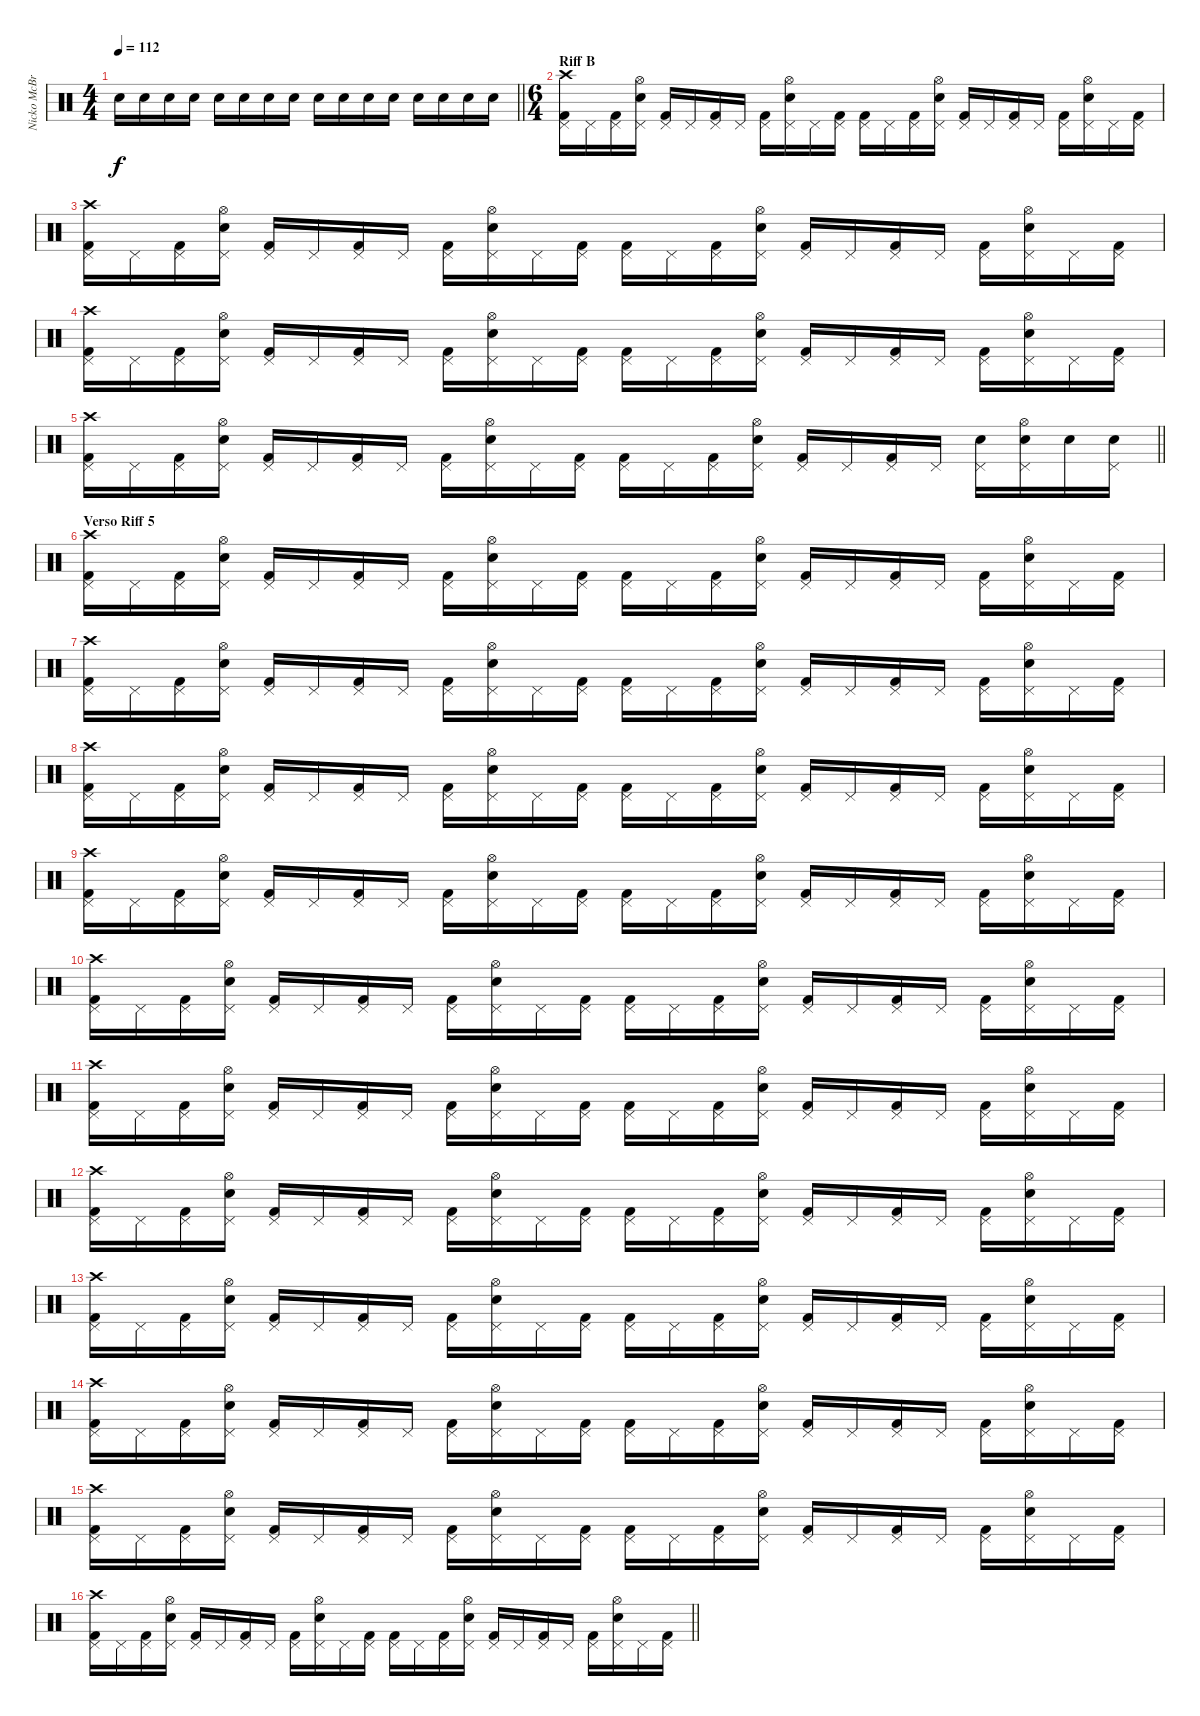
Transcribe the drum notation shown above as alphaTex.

\track ("Nicko McBrain" "Nicko McBr") {instrument percussion}
\staff {score}
\articulation defaults
\ts (4 4)
\tempo 112
\clef neutral
\barLineRight lightlight
\ks c "Snare (hit) 2".16{dy f volume 13} "Snare (hit) 2".16 "Snare (hit) 2".16 "Snare (hit) 2".16 "Snare (hit) 2".16 "Snare (hit) 2".16 "Snare (hit) 2".16 "Snare (hit) 2".16 "Snare (hit) 2".16 "Snare (hit) 2".16 "Snare (hit) 2".16 "Snare (hit) 2".16 "Snare (hit) 2".16 "Snare (hit) 2".16 "Snare (hit) 2".16 "Snare (hit) 2".16
|
\ts (6 4)
\section ("" "Riff B")
("Kick (hit) 2" "Pedal Hi-Hat (hit)" "Crash high (hit)").16 "Pedal Hi-Hat (hit)".16 ("Kick (hit) 2" "Pedal Hi-Hat (hit)").16 ("Snare (hit) 2" "Pedal Hi-Hat (hit)" "Hi-Hat (open)").16 ("Kick (hit) 2" "Pedal Hi-Hat (hit)").16 "Pedal Hi-Hat (hit)".16 ("Kick (hit) 2" "Pedal Hi-Hat (hit)").16 "Pedal Hi-Hat (hit)".16 ("Kick (hit) 2" "Pedal Hi-Hat (hit)").16 ("Snare (hit) 2" "Pedal Hi-Hat (hit)" "Hi-Hat (open)").16 "Pedal Hi-Hat (hit)".16 ("Kick (hit) 2" "Pedal Hi-Hat (hit)").16 ("Kick (hit) 2" "Pedal Hi-Hat (hit)").16 "Pedal Hi-Hat (hit)".16 ("Kick (hit) 2" "Pedal Hi-Hat (hit)").16 ("Snare (hit) 2" "Pedal Hi-Hat (hit)" "Hi-Hat (open)").16 ("Kick (hit) 2" "Pedal Hi-Hat (hit)").16 "Pedal Hi-Hat (hit)".16 ("Kick (hit) 2" "Pedal Hi-Hat (hit)").16 "Pedal Hi-Hat (hit)".16 ("Kick (hit) 2" "Pedal Hi-Hat (hit)").16 ("Snare (hit) 2" "Pedal Hi-Hat (hit)" "Hi-Hat (open)").16 "Pedal Hi-Hat (hit)".16 ("Kick (hit) 2" "Pedal Hi-Hat (hit)").16 |
("Kick (hit) 2" "Pedal Hi-Hat (hit)" "Crash high (hit)").16 "Pedal Hi-Hat (hit)".16 ("Kick (hit) 2" "Pedal Hi-Hat (hit)").16 ("Snare (hit) 2" "Pedal Hi-Hat (hit)" "Hi-Hat (open)").16 ("Kick (hit) 2" "Pedal Hi-Hat (hit)").16 "Pedal Hi-Hat (hit)".16 ("Kick (hit) 2" "Pedal Hi-Hat (hit)").16 "Pedal Hi-Hat (hit)".16 ("Kick (hit) 2" "Pedal Hi-Hat (hit)").16 ("Snare (hit) 2" "Pedal Hi-Hat (hit)" "Hi-Hat (open)").16 "Pedal Hi-Hat (hit)".16 ("Kick (hit) 2" "Pedal Hi-Hat (hit)").16 ("Kick (hit) 2" "Pedal Hi-Hat (hit)").16 "Pedal Hi-Hat (hit)".16 ("Kick (hit) 2" "Pedal Hi-Hat (hit)").16 ("Snare (hit) 2" "Pedal Hi-Hat (hit)" "Hi-Hat (open)").16 ("Kick (hit) 2" "Pedal Hi-Hat (hit)").16 "Pedal Hi-Hat (hit)".16 ("Kick (hit) 2" "Pedal Hi-Hat (hit)").16 "Pedal Hi-Hat (hit)".16 ("Kick (hit) 2" "Pedal Hi-Hat (hit)").16 ("Snare (hit) 2" "Pedal Hi-Hat (hit)" "Hi-Hat (open)").16 "Pedal Hi-Hat (hit)".16 ("Kick (hit) 2" "Pedal Hi-Hat (hit)").16 |
("Kick (hit) 2" "Pedal Hi-Hat (hit)" "Crash high (hit)").16 "Pedal Hi-Hat (hit)".16 ("Kick (hit) 2" "Pedal Hi-Hat (hit)").16 ("Snare (hit) 2" "Pedal Hi-Hat (hit)" "Hi-Hat (open)").16 ("Kick (hit) 2" "Pedal Hi-Hat (hit)").16 "Pedal Hi-Hat (hit)".16 ("Kick (hit) 2" "Pedal Hi-Hat (hit)").16 "Pedal Hi-Hat (hit)".16 ("Kick (hit) 2" "Pedal Hi-Hat (hit)").16 ("Snare (hit) 2" "Pedal Hi-Hat (hit)" "Hi-Hat (open)").16 "Pedal Hi-Hat (hit)".16 ("Kick (hit) 2" "Pedal Hi-Hat (hit)").16 ("Kick (hit) 2" "Pedal Hi-Hat (hit)").16 "Pedal Hi-Hat (hit)".16 ("Kick (hit) 2" "Pedal Hi-Hat (hit)").16 ("Snare (hit) 2" "Pedal Hi-Hat (hit)" "Hi-Hat (open)").16 ("Kick (hit) 2" "Pedal Hi-Hat (hit)").16 "Pedal Hi-Hat (hit)".16 ("Kick (hit) 2" "Pedal Hi-Hat (hit)").16 "Pedal Hi-Hat (hit)".16 ("Kick (hit) 2" "Pedal Hi-Hat (hit)").16 ("Snare (hit) 2" "Pedal Hi-Hat (hit)" "Hi-Hat (open)").16 "Pedal Hi-Hat (hit)".16 ("Kick (hit) 2" "Pedal Hi-Hat (hit)").16 |
\barLineRight lightlight
("Kick (hit) 2" "Pedal Hi-Hat (hit)" "Crash high (hit)").16 "Pedal Hi-Hat (hit)".16 ("Kick (hit) 2" "Pedal Hi-Hat (hit)").16 ("Snare (hit) 2" "Pedal Hi-Hat (hit)" "Hi-Hat (open)").16 ("Kick (hit) 2" "Pedal Hi-Hat (hit)").16 "Pedal Hi-Hat (hit)".16 ("Kick (hit) 2" "Pedal Hi-Hat (hit)").16 "Pedal Hi-Hat (hit)".16 ("Kick (hit) 2" "Pedal Hi-Hat (hit)").16 ("Snare (hit) 2" "Pedal Hi-Hat (hit)" "Hi-Hat (open)").16 "Pedal Hi-Hat (hit)".16 ("Kick (hit) 2" "Pedal Hi-Hat (hit)").16 ("Kick (hit) 2" "Pedal Hi-Hat (hit)").16 "Pedal Hi-Hat (hit)".16 ("Kick (hit) 2" "Pedal Hi-Hat (hit)").16 ("Snare (hit) 2" "Pedal Hi-Hat (hit)" "Hi-Hat (open)").16 ("Kick (hit) 2" "Pedal Hi-Hat (hit)").16 "Pedal Hi-Hat (hit)".16 ("Kick (hit) 2" "Pedal Hi-Hat (hit)").16 "Pedal Hi-Hat (hit)".16 ("Snare (hit) 2" "Pedal Hi-Hat (hit)").16 ("Snare (hit) 2" "Pedal Hi-Hat (hit)" "Hi-Hat (open)").16 "Snare (hit) 2".16 ("Snare (hit) 2" "Pedal Hi-Hat (hit)").16 |
\section ("" "Verso Riff 5")
("Kick (hit) 2" "Pedal Hi-Hat (hit)" "Crash high (hit)").16 "Pedal Hi-Hat (hit)".16 ("Kick (hit) 2" "Pedal Hi-Hat (hit)").16 ("Snare (hit) 2" "Pedal Hi-Hat (hit)" "Hi-Hat (open)").16 ("Kick (hit) 2" "Pedal Hi-Hat (hit)").16 "Pedal Hi-Hat (hit)".16 ("Kick (hit) 2" "Pedal Hi-Hat (hit)").16 "Pedal Hi-Hat (hit)".16 ("Kick (hit) 2" "Pedal Hi-Hat (hit)").16 ("Snare (hit) 2" "Pedal Hi-Hat (hit)" "Hi-Hat (open)").16 "Pedal Hi-Hat (hit)".16 ("Kick (hit) 2" "Pedal Hi-Hat (hit)").16 ("Kick (hit) 2" "Pedal Hi-Hat (hit)").16 "Pedal Hi-Hat (hit)".16 ("Kick (hit) 2" "Pedal Hi-Hat (hit)").16 ("Snare (hit) 2" "Pedal Hi-Hat (hit)" "Hi-Hat (open)").16 ("Kick (hit) 2" "Pedal Hi-Hat (hit)").16 "Pedal Hi-Hat (hit)".16 ("Kick (hit) 2" "Pedal Hi-Hat (hit)").16 "Pedal Hi-Hat (hit)".16 ("Kick (hit) 2" "Pedal Hi-Hat (hit)").16 ("Snare (hit) 2" "Pedal Hi-Hat (hit)" "Hi-Hat (open)").16 "Pedal Hi-Hat (hit)".16 ("Kick (hit) 2" "Pedal Hi-Hat (hit)").16 |
("Kick (hit) 2" "Pedal Hi-Hat (hit)" "Crash high (hit)").16 "Pedal Hi-Hat (hit)".16 ("Kick (hit) 2" "Pedal Hi-Hat (hit)").16 ("Snare (hit) 2" "Pedal Hi-Hat (hit)" "Hi-Hat (open)").16 ("Kick (hit) 2" "Pedal Hi-Hat (hit)").16 "Pedal Hi-Hat (hit)".16 ("Kick (hit) 2" "Pedal Hi-Hat (hit)").16 "Pedal Hi-Hat (hit)".16 ("Kick (hit) 2" "Pedal Hi-Hat (hit)").16 ("Snare (hit) 2" "Pedal Hi-Hat (hit)" "Hi-Hat (open)").16 "Pedal Hi-Hat (hit)".16 ("Kick (hit) 2" "Pedal Hi-Hat (hit)").16 ("Kick (hit) 2" "Pedal Hi-Hat (hit)").16 "Pedal Hi-Hat (hit)".16 ("Kick (hit) 2" "Pedal Hi-Hat (hit)").16 ("Snare (hit) 2" "Pedal Hi-Hat (hit)" "Hi-Hat (open)").16 ("Kick (hit) 2" "Pedal Hi-Hat (hit)").16 "Pedal Hi-Hat (hit)".16 ("Kick (hit) 2" "Pedal Hi-Hat (hit)").16 "Pedal Hi-Hat (hit)".16 ("Kick (hit) 2" "Pedal Hi-Hat (hit)").16 ("Snare (hit) 2" "Pedal Hi-Hat (hit)" "Hi-Hat (open)").16 "Pedal Hi-Hat (hit)".16 ("Kick (hit) 2" "Pedal Hi-Hat (hit)").16 |
("Kick (hit) 2" "Pedal Hi-Hat (hit)" "Crash high (hit)").16 "Pedal Hi-Hat (hit)".16 ("Kick (hit) 2" "Pedal Hi-Hat (hit)").16 ("Snare (hit) 2" "Pedal Hi-Hat (hit)" "Hi-Hat (open)").16 ("Kick (hit) 2" "Pedal Hi-Hat (hit)").16 "Pedal Hi-Hat (hit)".16 ("Kick (hit) 2" "Pedal Hi-Hat (hit)").16 "Pedal Hi-Hat (hit)".16 ("Kick (hit) 2" "Pedal Hi-Hat (hit)").16 ("Snare (hit) 2" "Pedal Hi-Hat (hit)" "Hi-Hat (open)").16 "Pedal Hi-Hat (hit)".16 ("Kick (hit) 2" "Pedal Hi-Hat (hit)").16 ("Kick (hit) 2" "Pedal Hi-Hat (hit)").16 "Pedal Hi-Hat (hit)".16 ("Kick (hit) 2" "Pedal Hi-Hat (hit)").16 ("Snare (hit) 2" "Pedal Hi-Hat (hit)" "Hi-Hat (open)").16 ("Kick (hit) 2" "Pedal Hi-Hat (hit)").16 "Pedal Hi-Hat (hit)".16 ("Kick (hit) 2" "Pedal Hi-Hat (hit)").16 "Pedal Hi-Hat (hit)".16 ("Kick (hit) 2" "Pedal Hi-Hat (hit)").16 ("Snare (hit) 2" "Pedal Hi-Hat (hit)" "Hi-Hat (open)").16 "Pedal Hi-Hat (hit)".16 ("Kick (hit) 2" "Pedal Hi-Hat (hit)").16 |
("Kick (hit) 2" "Pedal Hi-Hat (hit)" "Crash high (hit)").16 "Pedal Hi-Hat (hit)".16 ("Kick (hit) 2" "Pedal Hi-Hat (hit)").16 ("Snare (hit) 2" "Pedal Hi-Hat (hit)" "Hi-Hat (open)").16 ("Kick (hit) 2" "Pedal Hi-Hat (hit)").16 "Pedal Hi-Hat (hit)".16 ("Kick (hit) 2" "Pedal Hi-Hat (hit)").16 "Pedal Hi-Hat (hit)".16 ("Kick (hit) 2" "Pedal Hi-Hat (hit)").16 ("Snare (hit) 2" "Pedal Hi-Hat (hit)" "Hi-Hat (open)").16 "Pedal Hi-Hat (hit)".16 ("Kick (hit) 2" "Pedal Hi-Hat (hit)").16 ("Kick (hit) 2" "Pedal Hi-Hat (hit)").16 "Pedal Hi-Hat (hit)".16 ("Kick (hit) 2" "Pedal Hi-Hat (hit)").16 ("Snare (hit) 2" "Pedal Hi-Hat (hit)" "Hi-Hat (open)").16 ("Kick (hit) 2" "Pedal Hi-Hat (hit)").16 "Pedal Hi-Hat (hit)".16 ("Kick (hit) 2" "Pedal Hi-Hat (hit)").16 "Pedal Hi-Hat (hit)".16 ("Kick (hit) 2" "Pedal Hi-Hat (hit)").16 ("Snare (hit) 2" "Pedal Hi-Hat (hit)" "Hi-Hat (open)").16 "Pedal Hi-Hat (hit)".16 ("Kick (hit) 2" "Pedal Hi-Hat (hit)").16 |
("Kick (hit) 2" "Pedal Hi-Hat (hit)" "Crash high (hit)").16 "Pedal Hi-Hat (hit)".16 ("Kick (hit) 2" "Pedal Hi-Hat (hit)").16 ("Snare (hit) 2" "Pedal Hi-Hat (hit)" "Hi-Hat (open)").16 ("Kick (hit) 2" "Pedal Hi-Hat (hit)").16 "Pedal Hi-Hat (hit)".16 ("Kick (hit) 2" "Pedal Hi-Hat (hit)").16 "Pedal Hi-Hat (hit)".16 ("Kick (hit) 2" "Pedal Hi-Hat (hit)").16 ("Snare (hit) 2" "Pedal Hi-Hat (hit)" "Hi-Hat (open)").16 "Pedal Hi-Hat (hit)".16 ("Kick (hit) 2" "Pedal Hi-Hat (hit)").16 ("Kick (hit) 2" "Pedal Hi-Hat (hit)").16 "Pedal Hi-Hat (hit)".16 ("Kick (hit) 2" "Pedal Hi-Hat (hit)").16 ("Snare (hit) 2" "Pedal Hi-Hat (hit)" "Hi-Hat (open)").16 ("Kick (hit) 2" "Pedal Hi-Hat (hit)").16 "Pedal Hi-Hat (hit)".16 ("Kick (hit) 2" "Pedal Hi-Hat (hit)").16 "Pedal Hi-Hat (hit)".16 ("Kick (hit) 2" "Pedal Hi-Hat (hit)").16 ("Snare (hit) 2" "Pedal Hi-Hat (hit)" "Hi-Hat (open)").16 "Pedal Hi-Hat (hit)".16 ("Kick (hit) 2" "Pedal Hi-Hat (hit)").16 |
("Kick (hit) 2" "Pedal Hi-Hat (hit)" "Crash high (hit)").16 "Pedal Hi-Hat (hit)".16 ("Kick (hit) 2" "Pedal Hi-Hat (hit)").16 ("Snare (hit) 2" "Pedal Hi-Hat (hit)" "Hi-Hat (open)").16 ("Kick (hit) 2" "Pedal Hi-Hat (hit)").16 "Pedal Hi-Hat (hit)".16 ("Kick (hit) 2" "Pedal Hi-Hat (hit)").16 "Pedal Hi-Hat (hit)".16 ("Kick (hit) 2" "Pedal Hi-Hat (hit)").16 ("Snare (hit) 2" "Pedal Hi-Hat (hit)" "Hi-Hat (open)").16 "Pedal Hi-Hat (hit)".16 ("Kick (hit) 2" "Pedal Hi-Hat (hit)").16 ("Kick (hit) 2" "Pedal Hi-Hat (hit)").16 "Pedal Hi-Hat (hit)".16 ("Kick (hit) 2" "Pedal Hi-Hat (hit)").16 ("Snare (hit) 2" "Pedal Hi-Hat (hit)" "Hi-Hat (open)").16 ("Kick (hit) 2" "Pedal Hi-Hat (hit)").16 "Pedal Hi-Hat (hit)".16 ("Kick (hit) 2" "Pedal Hi-Hat (hit)").16 "Pedal Hi-Hat (hit)".16 ("Kick (hit) 2" "Pedal Hi-Hat (hit)").16 ("Snare (hit) 2" "Pedal Hi-Hat (hit)" "Hi-Hat (open)").16 "Pedal Hi-Hat (hit)".16 ("Kick (hit) 2" "Pedal Hi-Hat (hit)").16 |
("Kick (hit) 2" "Pedal Hi-Hat (hit)" "Crash high (hit)").16 "Pedal Hi-Hat (hit)".16 ("Kick (hit) 2" "Pedal Hi-Hat (hit)").16 ("Snare (hit) 2" "Pedal Hi-Hat (hit)" "Hi-Hat (open)").16 ("Kick (hit) 2" "Pedal Hi-Hat (hit)").16 "Pedal Hi-Hat (hit)".16 ("Kick (hit) 2" "Pedal Hi-Hat (hit)").16 "Pedal Hi-Hat (hit)".16 ("Kick (hit) 2" "Pedal Hi-Hat (hit)").16 ("Snare (hit) 2" "Pedal Hi-Hat (hit)" "Hi-Hat (open)").16 "Pedal Hi-Hat (hit)".16 ("Kick (hit) 2" "Pedal Hi-Hat (hit)").16 ("Kick (hit) 2" "Pedal Hi-Hat (hit)").16 "Pedal Hi-Hat (hit)".16 ("Kick (hit) 2" "Pedal Hi-Hat (hit)").16 ("Snare (hit) 2" "Pedal Hi-Hat (hit)" "Hi-Hat (open)").16 ("Kick (hit) 2" "Pedal Hi-Hat (hit)").16 "Pedal Hi-Hat (hit)".16 ("Kick (hit) 2" "Pedal Hi-Hat (hit)").16 "Pedal Hi-Hat (hit)".16 ("Kick (hit) 2" "Pedal Hi-Hat (hit)").16 ("Snare (hit) 2" "Pedal Hi-Hat (hit)" "Hi-Hat (open)").16 "Pedal Hi-Hat (hit)".16 ("Kick (hit) 2" "Pedal Hi-Hat (hit)").16 |
("Kick (hit) 2" "Pedal Hi-Hat (hit)" "Crash high (hit)").16 "Pedal Hi-Hat (hit)".16 ("Kick (hit) 2" "Pedal Hi-Hat (hit)").16 ("Snare (hit) 2" "Pedal Hi-Hat (hit)" "Hi-Hat (open)").16 ("Kick (hit) 2" "Pedal Hi-Hat (hit)").16 "Pedal Hi-Hat (hit)".16 ("Kick (hit) 2" "Pedal Hi-Hat (hit)").16 "Pedal Hi-Hat (hit)".16 ("Kick (hit) 2" "Pedal Hi-Hat (hit)").16 ("Snare (hit) 2" "Pedal Hi-Hat (hit)" "Hi-Hat (open)").16 "Pedal Hi-Hat (hit)".16 ("Kick (hit) 2" "Pedal Hi-Hat (hit)").16 ("Kick (hit) 2" "Pedal Hi-Hat (hit)").16 "Pedal Hi-Hat (hit)".16 ("Kick (hit) 2" "Pedal Hi-Hat (hit)").16 ("Snare (hit) 2" "Pedal Hi-Hat (hit)" "Hi-Hat (open)").16 ("Kick (hit) 2" "Pedal Hi-Hat (hit)").16 "Pedal Hi-Hat (hit)".16 ("Kick (hit) 2" "Pedal Hi-Hat (hit)").16 "Pedal Hi-Hat (hit)".16 ("Kick (hit) 2" "Pedal Hi-Hat (hit)").16 ("Snare (hit) 2" "Pedal Hi-Hat (hit)" "Hi-Hat (open)").16 "Pedal Hi-Hat (hit)".16 ("Kick (hit) 2" "Pedal Hi-Hat (hit)").16 |
("Kick (hit) 2" "Pedal Hi-Hat (hit)" "Crash high (hit)").16 "Pedal Hi-Hat (hit)".16 ("Kick (hit) 2" "Pedal Hi-Hat (hit)").16 ("Snare (hit) 2" "Pedal Hi-Hat (hit)" "Hi-Hat (open)").16 ("Kick (hit) 2" "Pedal Hi-Hat (hit)").16 "Pedal Hi-Hat (hit)".16 ("Kick (hit) 2" "Pedal Hi-Hat (hit)").16 "Pedal Hi-Hat (hit)".16 ("Kick (hit) 2" "Pedal Hi-Hat (hit)").16 ("Snare (hit) 2" "Pedal Hi-Hat (hit)" "Hi-Hat (open)").16 "Pedal Hi-Hat (hit)".16 ("Kick (hit) 2" "Pedal Hi-Hat (hit)").16 ("Kick (hit) 2" "Pedal Hi-Hat (hit)").16 "Pedal Hi-Hat (hit)".16 ("Kick (hit) 2" "Pedal Hi-Hat (hit)").16 ("Snare (hit) 2" "Pedal Hi-Hat (hit)" "Hi-Hat (open)").16 ("Kick (hit) 2" "Pedal Hi-Hat (hit)").16 "Pedal Hi-Hat (hit)".16 ("Kick (hit) 2" "Pedal Hi-Hat (hit)").16 "Pedal Hi-Hat (hit)".16 ("Kick (hit) 2" "Pedal Hi-Hat (hit)").16 ("Snare (hit) 2" "Pedal Hi-Hat (hit)" "Hi-Hat (open)").16 "Pedal Hi-Hat (hit)".16 ("Kick (hit) 2" "Pedal Hi-Hat (hit)").16 |
("Kick (hit) 2" "Pedal Hi-Hat (hit)" "Crash high (hit)").16 "Pedal Hi-Hat (hit)".16 ("Kick (hit) 2" "Pedal Hi-Hat (hit)").16 ("Snare (hit) 2" "Pedal Hi-Hat (hit)" "Hi-Hat (open)").16 ("Kick (hit) 2" "Pedal Hi-Hat (hit)").16 "Pedal Hi-Hat (hit)".16 ("Kick (hit) 2" "Pedal Hi-Hat (hit)").16 "Pedal Hi-Hat (hit)".16 ("Kick (hit) 2" "Pedal Hi-Hat (hit)").16 ("Snare (hit) 2" "Pedal Hi-Hat (hit)" "Hi-Hat (open)").16 "Pedal Hi-Hat (hit)".16 ("Kick (hit) 2" "Pedal Hi-Hat (hit)").16 ("Kick (hit) 2" "Pedal Hi-Hat (hit)").16 "Pedal Hi-Hat (hit)".16 ("Kick (hit) 2" "Pedal Hi-Hat (hit)").16 ("Snare (hit) 2" "Pedal Hi-Hat (hit)" "Hi-Hat (open)").16 ("Kick (hit) 2" "Pedal Hi-Hat (hit)").16 "Pedal Hi-Hat (hit)".16 ("Kick (hit) 2" "Pedal Hi-Hat (hit)").16 "Pedal Hi-Hat (hit)".16 ("Kick (hit) 2" "Pedal Hi-Hat (hit)").16 ("Snare (hit) 2" "Pedal Hi-Hat (hit)" "Hi-Hat (open)").16 "Pedal Hi-Hat (hit)".16 ("Kick (hit) 2" "Pedal Hi-Hat (hit)").16 |
\barLineRight lightlight
("Kick (hit) 2" "Pedal Hi-Hat (hit)" "Crash high (hit)").16 "Pedal Hi-Hat (hit)".16 ("Kick (hit) 2" "Pedal Hi-Hat (hit)").16 ("Snare (hit) 2" "Pedal Hi-Hat (hit)" "Hi-Hat (open)").16 ("Kick (hit) 2" "Pedal Hi-Hat (hit)").16 "Pedal Hi-Hat (hit)".16 ("Kick (hit) 2" "Pedal Hi-Hat (hit)").16 "Pedal Hi-Hat (hit)".16 ("Kick (hit) 2" "Pedal Hi-Hat (hit)").16 ("Snare (hit) 2" "Pedal Hi-Hat (hit)" "Hi-Hat (open)").16 "Pedal Hi-Hat (hit)".16 ("Kick (hit) 2" "Pedal Hi-Hat (hit)").16 ("Kick (hit) 2" "Pedal Hi-Hat (hit)").16 "Pedal Hi-Hat (hit)".16 ("Kick (hit) 2" "Pedal Hi-Hat (hit)").16 ("Snare (hit) 2" "Pedal Hi-Hat (hit)" "Hi-Hat (open)").16 ("Kick (hit) 2" "Pedal Hi-Hat (hit)").16 "Pedal Hi-Hat (hit)".16 ("Kick (hit) 2" "Pedal Hi-Hat (hit)").16 "Pedal Hi-Hat (hit)".16 ("Kick (hit) 2" "Pedal Hi-Hat (hit)").16 ("Snare (hit) 2" "Pedal Hi-Hat (hit)" "Hi-Hat (open)").16 "Pedal Hi-Hat (hit)".16 ("Kick (hit) 2" "Pedal Hi-Hat (hit)").16
